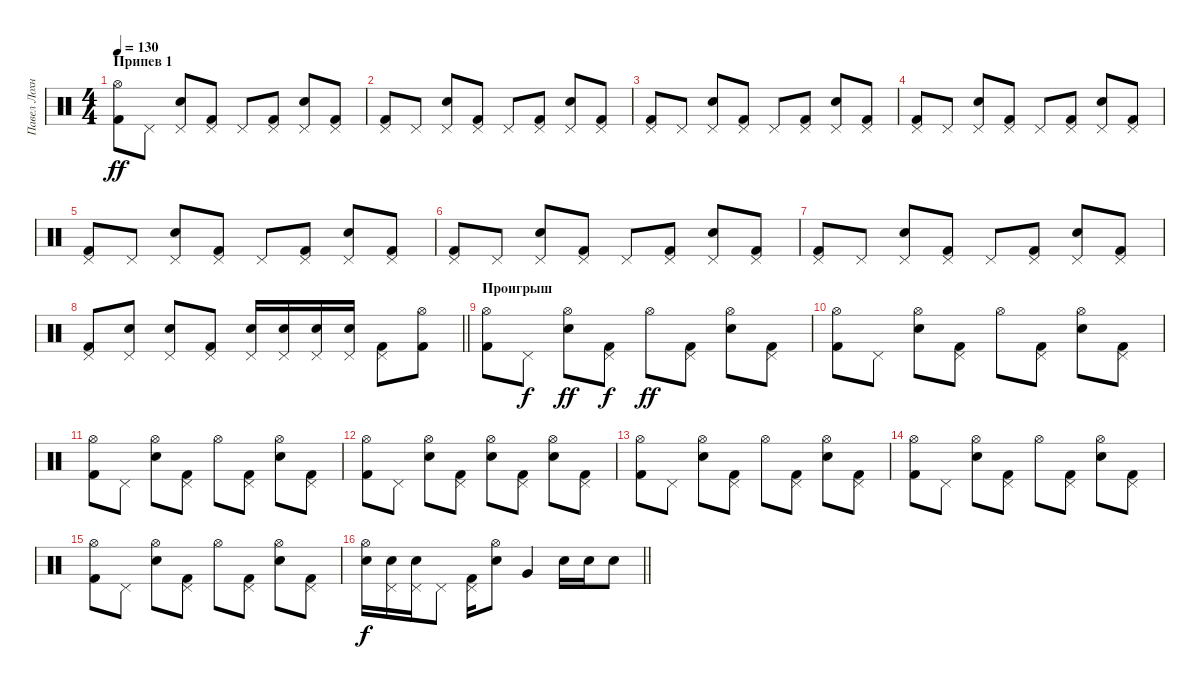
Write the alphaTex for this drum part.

\track ("Павел Лохнин" "Павел Лохн") {instrument percussion}
\staff {score}
\articulation defaults
\ts (4 4)
\section ("" "Припев 1")
\tempo 130
\clef neutral
\ks c
("Hi-Hat (open)" "Kick (hit) 2").8{dy ff} "Pedal Hi-Hat (hit)".8 ("Pedal Hi-Hat (hit)" "Electric Snare (hit)").8 ("Pedal Hi-Hat (hit)" "Kick (hit) 2").8 "Pedal Hi-Hat (hit)".8 ("Pedal Hi-Hat (hit)" "Kick (hit) 2").8 ("Pedal Hi-Hat (hit)" "Electric Snare (hit)").8 ("Pedal Hi-Hat (hit)" "Kick (hit) 2").8 |
("Pedal Hi-Hat (hit)" "Kick (hit) 2").8 "Pedal Hi-Hat (hit)".8 ("Pedal Hi-Hat (hit)" "Electric Snare (hit)").8 ("Pedal Hi-Hat (hit)" "Kick (hit) 2").8 "Pedal Hi-Hat (hit)".8 ("Pedal Hi-Hat (hit)" "Kick (hit) 2").8 ("Pedal Hi-Hat (hit)" "Electric Snare (hit)").8 ("Pedal Hi-Hat (hit)" "Kick (hit) 2").8 |
("Pedal Hi-Hat (hit)" "Kick (hit) 2").8 "Pedal Hi-Hat (hit)".8 ("Pedal Hi-Hat (hit)" "Electric Snare (hit)").8 ("Pedal Hi-Hat (hit)" "Kick (hit) 2").8 "Pedal Hi-Hat (hit)".8 ("Pedal Hi-Hat (hit)" "Kick (hit) 2").8 ("Pedal Hi-Hat (hit)" "Electric Snare (hit)").8 ("Pedal Hi-Hat (hit)" "Kick (hit) 2").8 |
("Pedal Hi-Hat (hit)" "Kick (hit) 2").8 "Pedal Hi-Hat (hit)".8 ("Pedal Hi-Hat (hit)" "Electric Snare (hit)").8 ("Pedal Hi-Hat (hit)" "Kick (hit) 2").8 "Pedal Hi-Hat (hit)".8 ("Pedal Hi-Hat (hit)" "Kick (hit) 2").8 ("Pedal Hi-Hat (hit)" "Electric Snare (hit)").8 ("Pedal Hi-Hat (hit)" "Kick (hit) 2").8 |
("Pedal Hi-Hat (hit)" "Kick (hit) 2").8 "Pedal Hi-Hat (hit)".8 ("Pedal Hi-Hat (hit)" "Electric Snare (hit)").8 ("Pedal Hi-Hat (hit)" "Kick (hit) 2").8 "Pedal Hi-Hat (hit)".8 ("Pedal Hi-Hat (hit)" "Kick (hit) 2").8 ("Pedal Hi-Hat (hit)" "Electric Snare (hit)").8 ("Pedal Hi-Hat (hit)" "Kick (hit) 2").8 |
("Pedal Hi-Hat (hit)" "Kick (hit) 2").8 "Pedal Hi-Hat (hit)".8 ("Pedal Hi-Hat (hit)" "Electric Snare (hit)").8 ("Pedal Hi-Hat (hit)" "Kick (hit) 2").8 "Pedal Hi-Hat (hit)".8 ("Pedal Hi-Hat (hit)" "Kick (hit) 2").8 ("Pedal Hi-Hat (hit)" "Electric Snare (hit)").8 ("Pedal Hi-Hat (hit)" "Kick (hit) 2").8 |
("Pedal Hi-Hat (hit)" "Kick (hit) 2").8 "Pedal Hi-Hat (hit)".8 ("Pedal Hi-Hat (hit)" "Electric Snare (hit)").8 ("Pedal Hi-Hat (hit)" "Kick (hit) 2").8 "Pedal Hi-Hat (hit)".8 ("Pedal Hi-Hat (hit)" "Kick (hit) 2").8 ("Pedal Hi-Hat (hit)" "Electric Snare (hit)").8 ("Pedal Hi-Hat (hit)" "Kick (hit) 2").8 |
\barLineRight lightlight
("Pedal Hi-Hat (hit)" "Kick (hit) 2").8 ("Pedal Hi-Hat (hit)" "Electric Snare (hit)").8 ("Pedal Hi-Hat (hit)" "Electric Snare (hit)").8 ("Pedal Hi-Hat (hit)" "Kick (hit) 2").8 ("Pedal Hi-Hat (hit)" "Electric Snare (hit)").16 ("Pedal Hi-Hat (hit)" "Electric Snare (hit)").16 ("Pedal Hi-Hat (hit)" "Electric Snare (hit)").16 ("Pedal Hi-Hat (hit)" "Electric Snare (hit)").16 ("Pedal Hi-Hat (hit)" "Kick (hit) 2").8 ("Hi-Hat (open)" "Kick (hit) 2").8 |
\section ("" "Проигрыш")
("Hi-Hat (open)" "Kick (hit) 2").8 "Pedal Hi-Hat (hit)".8{dy f} ("Hi-Hat (open)" "Electric Snare (hit)").8{dy ff} ("Pedal Hi-Hat (hit)" "Kick (hit) 2").8{dy f} "Hi-Hat (open)".8{dy ff} ("Pedal Hi-Hat (hit)" "Kick (hit) 2").8 ("Hi-Hat (open)" "Electric Snare (hit)").8 ("Pedal Hi-Hat (hit)" "Kick (hit) 2").8 |
("Hi-Hat (open)" "Kick (hit) 2").8 "Pedal Hi-Hat (hit)".8 ("Hi-Hat (open)" "Electric Snare (hit)").8 ("Pedal Hi-Hat (hit)" "Kick (hit) 2").8 "Hi-Hat (open)".8 ("Pedal Hi-Hat (hit)" "Kick (hit) 2").8 ("Hi-Hat (open)" "Electric Snare (hit)").8 ("Pedal Hi-Hat (hit)" "Kick (hit) 2").8 |
("Hi-Hat (open)" "Kick (hit) 2").8 "Pedal Hi-Hat (hit)".8 ("Hi-Hat (open)" "Electric Snare (hit)").8 ("Pedal Hi-Hat (hit)" "Kick (hit) 2").8 "Hi-Hat (open)".8 ("Pedal Hi-Hat (hit)" "Kick (hit) 2").8 ("Hi-Hat (open)" "Electric Snare (hit)").8 ("Pedal Hi-Hat (hit)" "Kick (hit) 2").8 |
("Hi-Hat (open)" "Kick (hit) 2").8 "Pedal Hi-Hat (hit)".8 ("Hi-Hat (open)" "Electric Snare (hit)").8 ("Pedal Hi-Hat (hit)" "Kick (hit) 2").8 ("Hi-Hat (open)" "Electric Snare (hit)").8 ("Pedal Hi-Hat (hit)" "Kick (hit) 2").8 ("Hi-Hat (open)" "Electric Snare (hit)").8 ("Pedal Hi-Hat (hit)" "Kick (hit) 2").8 |
("Hi-Hat (open)" "Kick (hit) 2").8 "Pedal Hi-Hat (hit)".8 ("Hi-Hat (open)" "Electric Snare (hit)").8 ("Pedal Hi-Hat (hit)" "Kick (hit) 2").8 "Hi-Hat (open)".8 ("Pedal Hi-Hat (hit)" "Kick (hit) 2").8 ("Hi-Hat (open)" "Electric Snare (hit)").8 ("Pedal Hi-Hat (hit)" "Kick (hit) 2").8 |
("Hi-Hat (open)" "Kick (hit) 2").8 "Pedal Hi-Hat (hit)".8 ("Hi-Hat (open)" "Electric Snare (hit)").8 ("Pedal Hi-Hat (hit)" "Kick (hit) 2").8 "Hi-Hat (open)".8 ("Pedal Hi-Hat (hit)" "Kick (hit) 2").8 ("Hi-Hat (open)" "Electric Snare (hit)").8 ("Pedal Hi-Hat (hit)" "Kick (hit) 2").8 |
("Hi-Hat (open)" "Kick (hit) 2").8 "Pedal Hi-Hat (hit)".8 ("Hi-Hat (open)" "Electric Snare (hit)").8 ("Pedal Hi-Hat (hit)" "Kick (hit) 2").8 "Hi-Hat (open)".8 ("Pedal Hi-Hat (hit)" "Kick (hit) 2").8 ("Hi-Hat (open)" "Electric Snare (hit)").8 ("Pedal Hi-Hat (hit)" "Kick (hit) 2").8 |
\barLineRight lightlight
("Hi-Hat (open)" "Electric Snare (hit)").16{dy f} ("Pedal Hi-Hat (hit)" "Electric Snare (hit)").16 ("Pedal Hi-Hat (hit)" "Electric Snare (hit)").16 "Pedal Hi-Hat (hit)".8 ("Pedal Hi-Hat (hit)" "Kick (hit) 2").16 ("Hi-Hat (open)" "Electric Snare (hit)").8 "Very Low Tom (hit)".4 "Electric Snare (hit)".16 "Electric Snare (hit)".16 "Electric Snare (hit)".8
